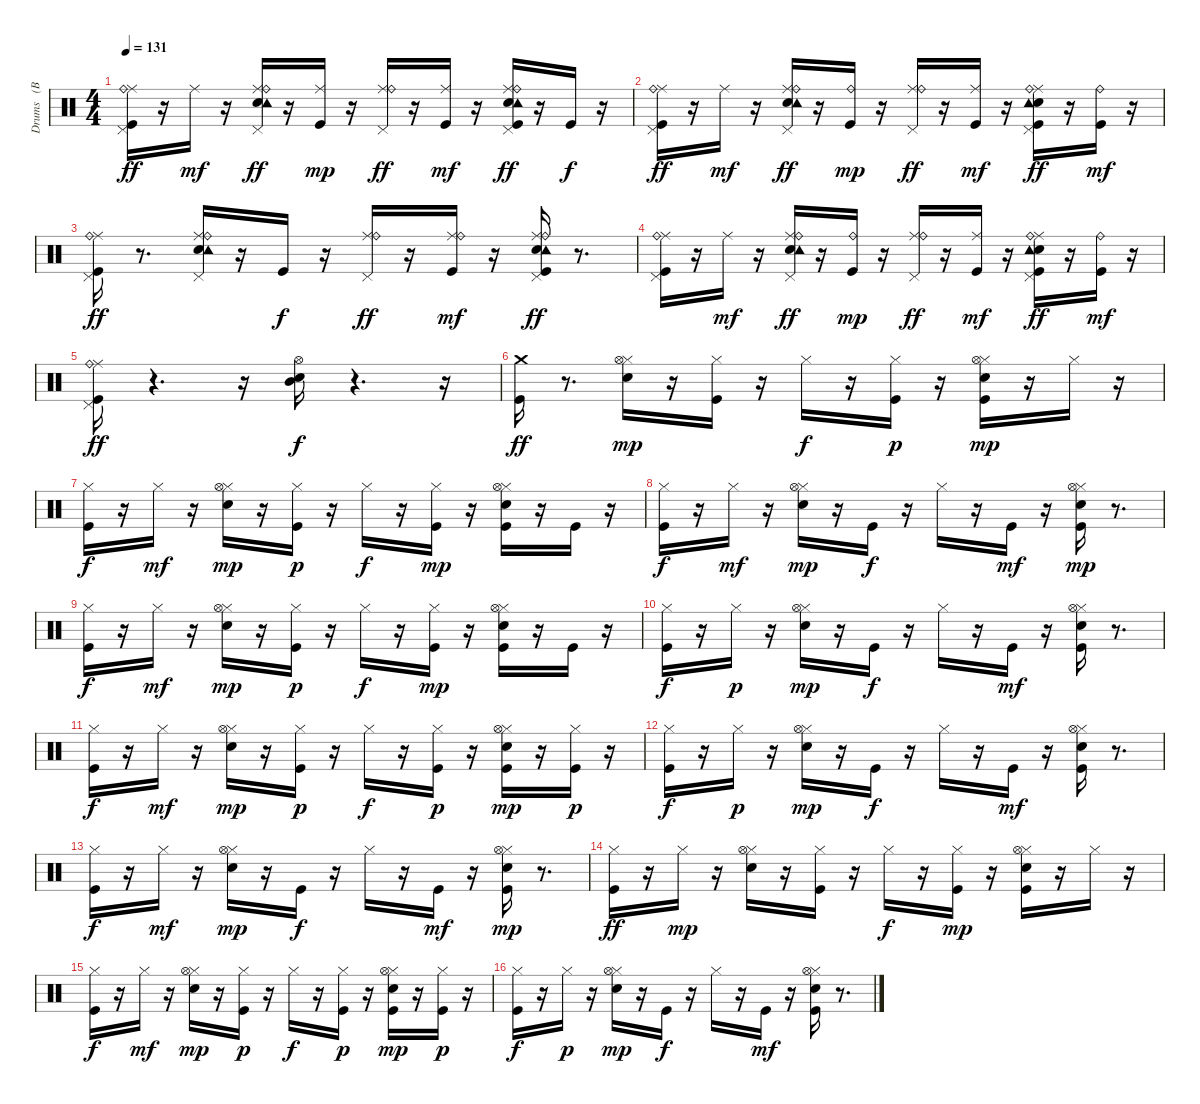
\track ("Drums   (BB)" "Drums   (B") {instrument percussion}
\staff {score}
\articulation defaults
\ts (4 4)
\tempo 131
\clef neutral
\ks c
("Kick (hit)" "Pedal Hi-Hat (hit)" "Ride (middle)" "Ride (bell)").16{dy ff} r.16 "Ride (middle)".16{dy mf} r.16 ("Snare (hit) 2" "Tambourine (hit)" "Pedal Hi-Hat (hit)" "Ride (middle)" "Ride (bell)").16{dy ff} r.16 ("Kick (hit)" "Ride (middle)").16{dy mp} r.16 ("Pedal Hi-Hat (hit)" "Ride (middle)" "Ride (bell)").16{dy ff} r.16 ("Kick (hit)" "Ride (middle)").16{dy mf} r.16 ("Kick (hit)" "Snare (hit) 2" "Tambourine (hit)" "Pedal Hi-Hat (hit)" "Ride (middle)" "Ride (bell)").16{dy ff} r.16 "Kick (hit)".16{dy f} r.16 |
("Kick (hit)" "Pedal Hi-Hat (hit)" "Ride (middle)" "Ride (bell)").16{dy ff} r.16 "Ride (middle)".16{dy mf} r.16 ("Snare (hit) 2" "Tambourine (hit)" "Pedal Hi-Hat (hit)" "Ride (middle)" "Ride (bell)").16{dy ff} r.16 ("Kick (hit)" "Ride (bell)").16{dy mp} r.16 ("Pedal Hi-Hat (hit)" "Ride (middle)" "Ride (bell)").16{dy ff} r.16 ("Kick (hit)" "Ride (middle)").16{dy mf} r.16 ("Kick (hit)" "Snare (hit) 2" "Tambourine (hit)" "Pedal Hi-Hat (hit)" "Ride (middle)" "Ride (bell)").16{dy ff} r.16 ("Kick (hit)" "Ride (bell)").16{dy mf} r.16 |
("Kick (hit)" "Pedal Hi-Hat (hit)" "Ride (middle)" "Ride (bell)").16{dy ff} r.8{d} ("Snare (hit) 2" "Tambourine (hit)" "Pedal Hi-Hat (hit)" "Ride (middle)" "Ride (bell)").16 r.16 "Kick (hit)".16{dy f} r.16 ("Pedal Hi-Hat (hit)" "Ride (middle)" "Ride (bell)").16{dy ff} r.16 ("Kick (hit)" "Ride (middle)" "Ride (bell)").16{dy mf} r.16 ("Kick (hit)" "Snare (hit) 2" "Tambourine (hit)" "Pedal Hi-Hat (hit)" "Ride (middle)" "Ride (bell)").16{dy ff} r.8{d} |
("Kick (hit)" "Pedal Hi-Hat (hit)" "Ride (middle)" "Ride (bell)").16 r.16 "Ride (middle)".16{dy mf} r.16 ("Snare (hit) 2" "Tambourine (hit)" "Pedal Hi-Hat (hit)" "Ride (middle)" "Ride (bell)").16{dy ff} r.16 ("Kick (hit)" "Ride (bell)").16{dy mp} r.16 ("Pedal Hi-Hat (hit)" "Ride (middle)" "Ride (bell)").16{dy ff} r.16 ("Kick (hit)" "Ride (middle)").16{dy mf} r.16 ("Kick (hit)" "Snare (hit) 2" "Tambourine (hit)" "Pedal Hi-Hat (hit)" "Ride (middle)" "Ride (bell)").16{dy ff} r.16 ("Kick (hit)" "Ride (bell)").16{dy mf} r.16 |
("Kick (hit)" "Pedal Hi-Hat (hit)" "Ride (middle)" "Ride (bell)").16{dy ff} r.4{d} r.16 ("Snare (hit) 2" "Hi-Hat (open)" "Mid Tom (hit)").16{dy f} r.4{d} r.16 |
("Kick (hit)" "Crash medium (hit)").16{dy ff} r.8{d} ("Snare (hit) 2" "Hi-Hat (closed)" "Hi-Hat (open)").16{dy mp} r.16 ("Kick (hit)" "Hi-Hat (closed)").16 r.16 "Hi-Hat (closed)".16{dy f} r.16 ("Kick (hit)" "Hi-Hat (closed)").16{dy p} r.16 ("Kick (hit)" "Snare (hit) 2" "Hi-Hat (closed)" "Hi-Hat (open)").16{dy mp} r.16 "Hi-Hat (closed)".16 r.16 |
("Kick (hit)" "Hi-Hat (closed)").16{dy f} r.16 "Hi-Hat (closed)".16{dy mf} r.16 ("Snare (hit) 2" "Hi-Hat (closed)" "Hi-Hat (open)").16{dy mp} r.16 ("Kick (hit)" "Hi-Hat (closed)").16{dy p} r.16 "Hi-Hat (closed)".16{dy f} r.16 ("Kick (hit)" "Hi-Hat (closed)").16{dy mp} r.16 ("Kick (hit)" "Snare (hit) 2" "Hi-Hat (closed)" "Hi-Hat (open)").16 r.16 "Kick (hit)".16 r.16 |
("Kick (hit)" "Hi-Hat (closed)").16{dy f} r.16 "Hi-Hat (closed)".16{dy mf} r.16 ("Snare (hit) 2" "Hi-Hat (closed)" "Hi-Hat (open)").16{dy mp} r.16 "Kick (hit)".16{dy f} r.16 "Hi-Hat (closed)".16 r.16 "Kick (hit)".16{dy mf} r.16 ("Kick (hit)" "Snare (hit) 2" "Hi-Hat (closed)" "Hi-Hat (open)").16{dy mp} r.8{d} |
("Kick (hit)" "Hi-Hat (closed)").16{dy f} r.16 "Hi-Hat (closed)".16{dy mf} r.16 ("Snare (hit) 2" "Hi-Hat (closed)" "Hi-Hat (open)").16{dy mp} r.16 ("Kick (hit)" "Hi-Hat (closed)").16{dy p} r.16 "Hi-Hat (closed)".16{dy f} r.16 ("Kick (hit)" "Hi-Hat (closed)").16{dy mp} r.16 ("Kick (hit)" "Snare (hit) 2" "Hi-Hat (closed)" "Hi-Hat (open)").16 r.16 "Kick (hit)".16 r.16 |
("Kick (hit)" "Hi-Hat (closed)").16{dy f} r.16 "Hi-Hat (closed)".16{dy p} r.16 ("Snare (hit) 2" "Hi-Hat (closed)" "Hi-Hat (open)").16{dy mp} r.16 "Kick (hit)".16{dy f} r.16 "Hi-Hat (closed)".16 r.16 "Kick (hit)".16{dy mf} r.16 ("Kick (hit)" "Snare (hit) 2" "Hi-Hat (closed)" "Hi-Hat (open)").16 r.8{d} |
("Kick (hit)" "Hi-Hat (closed)").16{dy f} r.16 "Hi-Hat (closed)".16{dy mf} r.16 ("Snare (hit) 2" "Hi-Hat (closed)" "Hi-Hat (open)").16{dy mp} r.16 ("Kick (hit)" "Hi-Hat (closed)").16{dy p} r.16 "Hi-Hat (closed)".16{dy f} r.16 ("Kick (hit)" "Hi-Hat (closed)").16{dy p} r.16 ("Kick (hit)" "Snare (hit) 2" "Hi-Hat (closed)" "Hi-Hat (open)").16{dy mp} r.16 ("Kick (hit)" "Hi-Hat (closed)").16{dy p} r.16 |
("Kick (hit)" "Hi-Hat (closed)").16{dy f} r.16 "Hi-Hat (closed)".16{dy p} r.16 ("Snare (hit) 2" "Hi-Hat (closed)" "Hi-Hat (open)").16{dy mp} r.16 "Kick (hit)".16{dy f} r.16 "Hi-Hat (closed)".16 r.16 "Kick (hit)".16{dy mf} r.16 ("Kick (hit)" "Snare (hit) 2" "Hi-Hat (closed)" "Hi-Hat (open)").16 r.8{d} |
("Kick (hit)" "Hi-Hat (closed)").16{dy f} r.16 "Hi-Hat (closed)".16{dy mf} r.16 ("Snare (hit) 2" "Hi-Hat (closed)" "Hi-Hat (open)").16{dy mp} r.16 "Kick (hit)".16{dy f} r.16 "Hi-Hat (closed)".16 r.16 "Kick (hit)".16{dy mf} r.16 ("Kick (hit)" "Snare (hit) 2" "Hi-Hat (closed)" "Hi-Hat (open)").16{dy mp} r.8{d} |
("Kick (hit)" "Hi-Hat (closed)").16{dy ff} r.16 "Hi-Hat (closed)".16{dy mp} r.16 ("Snare (hit) 2" "Hi-Hat (closed)" "Hi-Hat (open)").16 r.16 ("Kick (hit)" "Hi-Hat (closed)").16 r.16 "Hi-Hat (closed)".16{dy f} r.16 ("Kick (hit)" "Hi-Hat (closed)").16{dy mp} r.16 ("Kick (hit)" "Snare (hit) 2" "Hi-Hat (closed)" "Hi-Hat (open)").16 r.16 "Hi-Hat (closed)".16 r.16 |
("Kick (hit)" "Hi-Hat (closed)").16{dy f} r.16 "Hi-Hat (closed)".16{dy mf} r.16 ("Snare (hit) 2" "Hi-Hat (closed)" "Hi-Hat (open)").16{dy mp} r.16 ("Kick (hit)" "Hi-Hat (closed)").16{dy p} r.16 "Hi-Hat (closed)".16{dy f} r.16 ("Kick (hit)" "Hi-Hat (closed)").16{dy p} r.16 ("Kick (hit)" "Snare (hit) 2" "Hi-Hat (closed)" "Hi-Hat (open)").16{dy mp} r.16 ("Kick (hit)" "Hi-Hat (closed)").16{dy p} r.16 |
("Kick (hit)" "Hi-Hat (closed)").16{dy f} r.16 "Hi-Hat (closed)".16{dy p} r.16 ("Snare (hit) 2" "Hi-Hat (closed)" "Hi-Hat (open)").16{dy mp} r.16 "Kick (hit)".16{dy f} r.16 "Hi-Hat (closed)".16 r.16 "Kick (hit)".16{dy mf} r.16 ("Kick (hit)" "Snare (hit) 2" "Hi-Hat (closed)" "Hi-Hat (open)").16 r.8{d}
